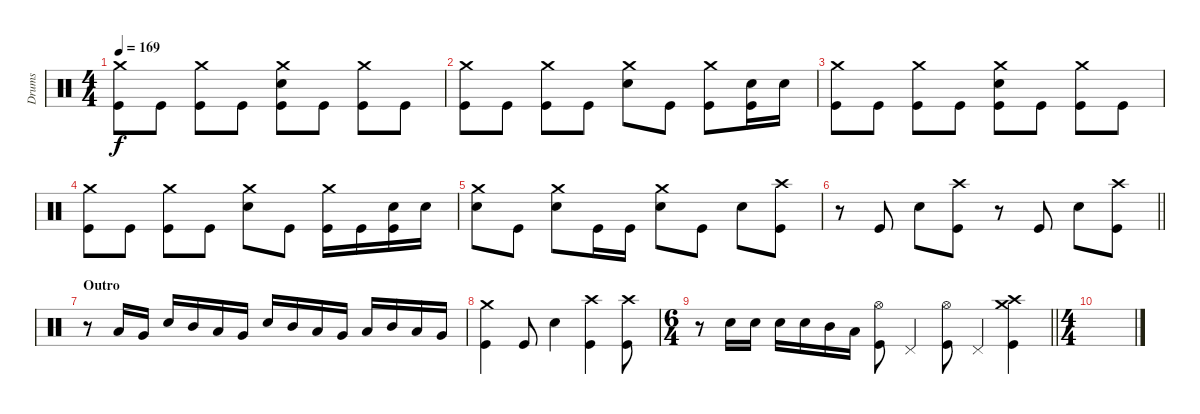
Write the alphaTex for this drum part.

\track ("Drums" "Drums") {instrument percussion}
\staff {score}
\articulation defaults
\ts (4 4)
\tempo 169
\clef neutral
\ks c
("Crash medium (hit)" "Kick (hit)").8{dy f} "Kick (hit)".8 ("Crash medium (hit)" "Kick (hit)").8 "Kick (hit)".8 ("Crash medium (hit)" "Snare (hit) 2" "Kick (hit)").8 "Kick (hit)".8 ("Crash medium (hit)" "Kick (hit)").8 "Kick (hit)".8 |
("Crash medium (hit)" "Kick (hit)").8 "Kick (hit)".8 ("Crash medium (hit)" "Kick (hit)").8 "Kick (hit)".8 ("Crash medium (hit)" "Snare (hit) 2").8 "Kick (hit)".8 ("Crash medium (hit)" "Kick (hit)").8 ("Snare (hit) 2" "Kick (hit)").16 "Snare (hit) 2".16 |
("Crash medium (hit)" "Kick (hit)").8 "Kick (hit)".8 ("Crash medium (hit)" "Kick (hit)").8 "Kick (hit)".8 ("Crash medium (hit)" "Snare (hit) 2" "Kick (hit)").8 "Kick (hit)".8 ("Crash medium (hit)" "Kick (hit)").8 "Kick (hit)".8 |
("Crash medium (hit)" "Kick (hit)").8 "Kick (hit)".8 ("Crash medium (hit)" "Kick (hit)").8 "Kick (hit)".8 ("Crash medium (hit)" "Snare (hit) 2").8 "Kick (hit)".8 ("Crash medium (hit)" "Kick (hit)").16 "Kick (hit)".16 ("Snare (hit) 2" "Kick (hit)").16 "Snare (hit) 2".16 |
("Crash medium (hit)" "Snare (hit) 2").8 "Kick (hit)".8 ("Crash medium (hit)" "Snare (hit) 2").8 "Kick (hit)".16 "Kick (hit)".16 ("Crash medium (hit)" "Snare (hit) 2").8 "Kick (hit)".8 "Snare (hit) 2".8 ("Crash high (hit)" "Kick (hit)").8 |
\barLineRight lightlight
r.8 "Kick (hit)".8 "Snare (hit) 2".8 ("Crash high (hit)" "Kick (hit)").8 r.8 "Kick (hit)".8 "Snare (hit) 2".8 ("Crash high (hit)" "Kick (hit)").8 |
\section ("" "Outro")
r.8 "Low Tom (hit)".16 "Very Low Tom (hit)".16 "Snare (hit) 2".16 "Mid Tom (hit)".16 "Low Tom (hit)".16 "Very Low Tom (hit)".16 "Snare (hit) 2".16 "Mid Tom (hit)".16 "Low Tom (hit)".16 "Very Low Tom (hit)".16 "Low Tom (hit)".16 "Mid Tom (hit)".16 "Low Tom (hit)".16 "Very Low Tom (hit)".16 |
("Crash medium (hit)" "Kick (hit)").4 "Kick (hit)".8 "Snare (hit) 2".4 ("Crash high (hit)" "Kick (hit)").4 ("Crash high (hit)" "Kick (hit)").8 |
\ts (6 4)
\barLineRight lightlight
r.8 "Snare (hit) 2".16 "Snare (hit) 2".16 "Snare (hit) 2".16 "Snare (hit)".16 "Mid Tom (hit)".16 "Low Tom (hit)".16 ("Hi-Hat (open)" "Kick (hit)").8 "Pedal Hi-Hat (hit)".4 ("Hi-Hat (open)" "Kick (hit)").8 "Pedal Hi-Hat (hit)".4 ("Crash high (hit)" "Crash medium (hit)" "Kick (hit)").4 |
\ts (4 4)
